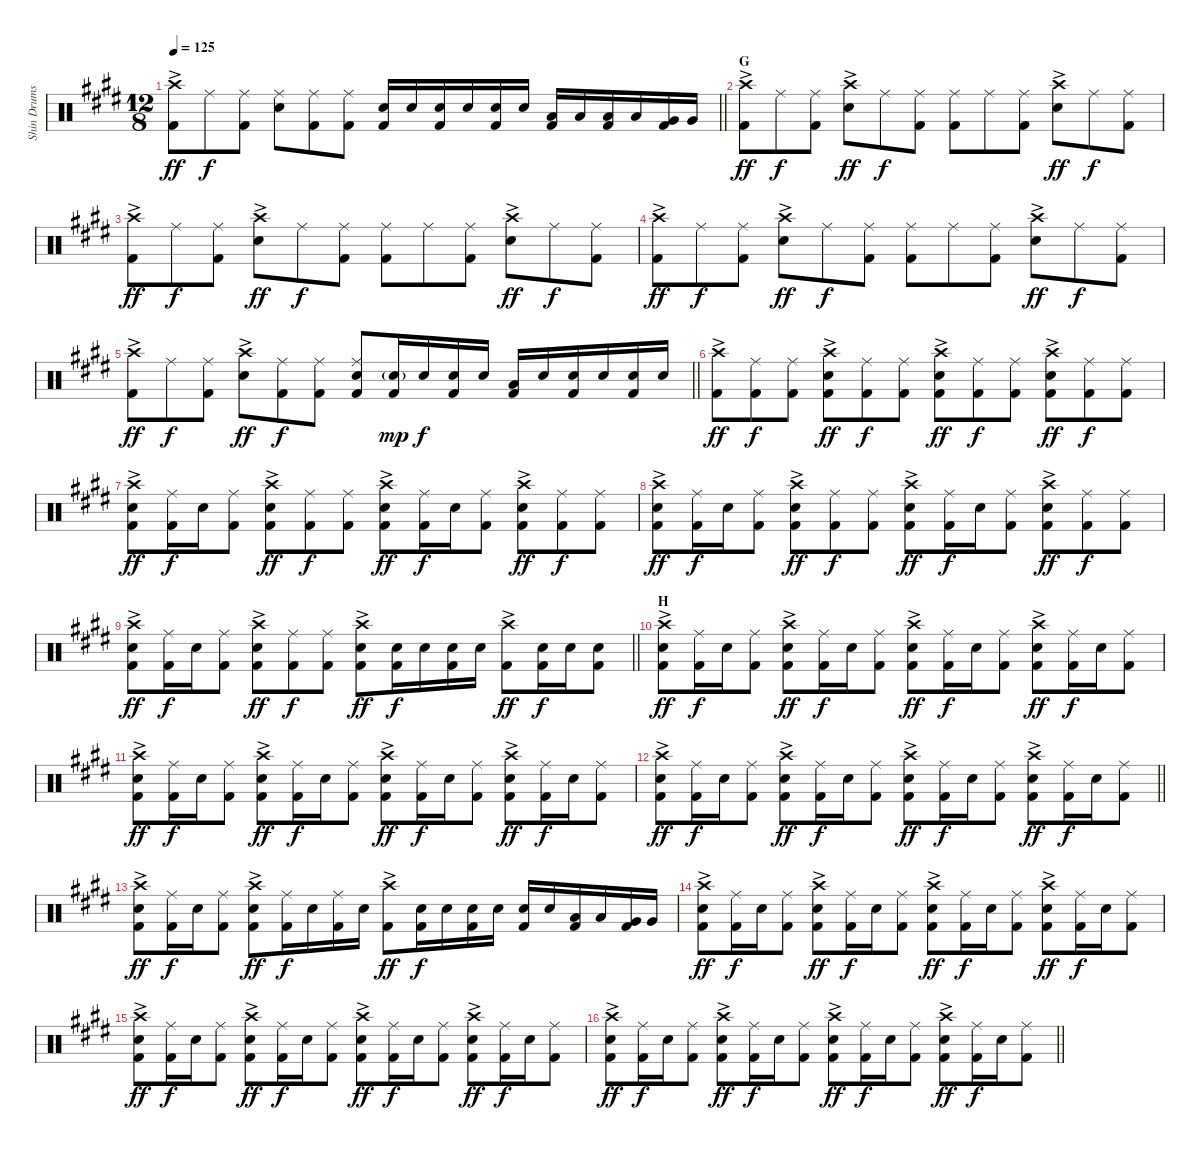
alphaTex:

\track ("Shin Drums" "Shin Drums") {instrument percussion}
\staff {score}
\articulation defaults
\ts (12 8)
\tempo 125
\clef neutral
\barLineRight lightlight
\ks e
("Crash high (hit)"{ac} "Kick (hit) 2").8{dy ff} "Ride (middle)".8{dy f} ("Ride (middle)" "Kick (hit) 2").8 ("Ride (middle)" "Snare (hit) 2").8 ("Ride (middle)" "Kick (hit) 2").8 ("Ride (middle)" "Kick (hit) 2").8 ("Snare (hit) 2" "Kick (hit) 2").16 "Snare (hit) 2".16 ("Snare (hit) 2" "Kick (hit) 2").16 "Snare (hit) 2".16 ("Snare (hit) 2" "Kick (hit) 2").16 "Snare (hit) 2".16 ("Low Tom (hit)" "Kick (hit) 2").16 "Low Tom (hit)".16 ("Low Tom (hit)" "Kick (hit) 2").16 "Low Tom (hit)".16 ("Very Low Tom (hit)" "Kick (hit) 2").16 "Very Low Tom (hit)".16 |
\section ("" "G")
("Crash high (hit)"{ac} "Kick (hit) 2").8{dy ff} "Ride (middle)".8{dy f} ("Ride (middle)" "Kick (hit) 2").8 ("Crash high (hit)"{ac} "Snare (hit) 2").8{dy ff} "Ride (middle)".8{dy f} ("Ride (middle)" "Kick (hit) 2").8 ("Ride (middle)" "Kick (hit) 2").8 "Ride (middle)".8 ("Ride (middle)" "Kick (hit) 2").8 ("Crash high (hit)"{ac} "Snare (hit) 2").8{dy ff} "Ride (middle)".8{dy f} ("Ride (middle)" "Kick (hit) 2").8 |
("Crash high (hit)"{ac} "Kick (hit) 2").8{dy ff} "Ride (middle)".8{dy f} ("Ride (middle)" "Kick (hit) 2").8 ("Crash high (hit)"{ac} "Snare (hit) 2").8{dy ff} "Ride (middle)".8{dy f} ("Ride (middle)" "Kick (hit) 2").8 ("Ride (middle)" "Kick (hit) 2").8 "Ride (middle)".8 ("Ride (middle)" "Kick (hit) 2").8 ("Crash high (hit)"{ac} "Snare (hit) 2").8{dy ff} "Ride (middle)".8{dy f} ("Ride (middle)" "Kick (hit) 2").8 |
("Crash high (hit)"{ac} "Kick (hit) 2").8{dy ff} "Ride (middle)".8{dy f} ("Ride (middle)" "Kick (hit) 2").8 ("Crash high (hit)"{ac} "Snare (hit) 2").8{dy ff} "Ride (middle)".8{dy f} ("Ride (middle)" "Kick (hit) 2").8 ("Ride (middle)" "Kick (hit) 2").8 "Ride (middle)".8 ("Ride (middle)" "Kick (hit) 2").8 ("Crash high (hit)"{ac} "Snare (hit) 2").8{dy ff} "Ride (middle)".8{dy f} ("Ride (middle)" "Kick (hit) 2").8 |
\barLineRight lightlight
("Crash high (hit)"{ac} "Kick (hit) 2").8{dy ff} "Ride (middle)".8{dy f} ("Ride (middle)" "Kick (hit) 2").8 ("Crash high (hit)"{ac} "Snare (hit) 2").8{dy ff} ("Ride (middle)" "Kick (hit) 2").8{dy f} ("Ride (middle)" "Kick (hit) 2").8 ("Ride (middle)" "Snare (hit) 2" "Kick (hit) 2").8 ("Snare (hit) 2"{g} "Kick (hit) 2").16{dy mp} "Snare (hit) 2".16{dy f} ("Snare (hit) 2" "Kick (hit) 2").16 "Snare (hit) 2".16 ("Low Tom (hit)" "Kick (hit) 2").16 "Snare (hit) 2".16 ("Snare (hit) 2" "Kick (hit) 2").16 "Snare (hit) 2".16 ("Snare (hit) 2" "Kick (hit) 2").16 "Snare (hit) 2".16 |
("Crash high (hit)"{ac} "Kick (hit) 2").8{dy ff} ("Ride (middle)" "Kick (hit) 2").8{dy f} ("Ride (middle)" "Kick (hit) 2").8 ("Crash high (hit)"{ac} "Snare (hit) 2" "Kick (hit) 2").8{dy ff} ("Ride (middle)" "Kick (hit) 2").8{dy f} ("Ride (middle)" "Kick (hit) 2").8 ("Crash high (hit)"{ac} "Snare (hit) 2" "Kick (hit) 2").8{dy ff} ("Ride (middle)" "Kick (hit) 2").8{dy f} ("Ride (middle)" "Kick (hit) 2").8 ("Crash high (hit)"{ac} "Snare (hit) 2" "Kick (hit) 2").8{dy ff} ("Ride (middle)" "Kick (hit) 2").8{dy f} ("Ride (middle)" "Kick (hit) 2").8 |
("Crash high (hit)"{ac} "Snare (hit) 2" "Kick (hit) 2").8{dy ff} ("Ride (middle)" "Kick (hit) 2").16{dy f} "Snare (hit) 2".16 ("Ride (middle)" "Kick (hit) 2").8 ("Crash high (hit)"{ac} "Snare (hit) 2" "Kick (hit) 2").8{dy ff} ("Ride (middle)" "Kick (hit) 2").8{dy f} ("Ride (middle)" "Kick (hit) 2").8 ("Crash high (hit)"{ac} "Snare (hit) 2" "Kick (hit) 2").8{dy ff} ("Ride (middle)" "Kick (hit) 2").16{dy f} "Snare (hit) 2".16 ("Ride (middle)" "Kick (hit) 2").8 ("Crash high (hit)"{ac} "Snare (hit) 2" "Kick (hit) 2").8{dy ff} ("Ride (middle)" "Kick (hit) 2").8{dy f} ("Ride (middle)" "Kick (hit) 2").8 |
("Crash high (hit)"{ac} "Snare (hit) 2" "Kick (hit) 2").8{dy ff} ("Ride (middle)" "Kick (hit) 2").16{dy f} "Snare (hit) 2".16 ("Ride (middle)" "Kick (hit) 2").8 ("Crash high (hit)"{ac} "Snare (hit) 2" "Kick (hit) 2").8{dy ff} ("Ride (middle)" "Kick (hit) 2").8{dy f} ("Ride (middle)" "Kick (hit) 2").8 ("Crash high (hit)"{ac} "Snare (hit) 2" "Kick (hit) 2").8{dy ff} ("Ride (middle)" "Kick (hit) 2").16{dy f} "Snare (hit) 2".16 ("Ride (middle)" "Kick (hit) 2").8 ("Crash high (hit)"{ac} "Snare (hit) 2" "Kick (hit) 2").8{dy ff} ("Ride (middle)" "Kick (hit) 2").8{dy f} ("Ride (middle)" "Kick (hit) 2").8 |
\barLineRight lightlight
("Crash high (hit)"{ac} "Snare (hit) 2" "Kick (hit) 2").8{dy ff} ("Ride (middle)" "Kick (hit) 2").16{dy f} "Snare (hit) 2".16 ("Ride (middle)" "Kick (hit) 2").8 ("Crash high (hit)"{ac} "Snare (hit) 2" "Kick (hit) 2").8{dy ff} ("Ride (middle)" "Kick (hit) 2").8{dy f} ("Ride (middle)" "Kick (hit) 2").8 ("Crash high (hit)"{ac} "Snare (hit) 2" "Kick (hit) 2").8{dy ff} ("Snare (hit) 2" "Kick (hit) 2").16{dy f} "Snare (hit) 2".16 ("Snare (hit) 2" "Kick (hit) 2").16 "Snare (hit) 2".16 ("Crash high (hit)"{ac} "Kick (hit) 2").8{dy ff} ("Snare (hit) 2" "Kick (hit) 2").16{dy f} "Snare (hit) 2".16 ("Snare (hit) 2" "Kick (hit) 2").8 |
\section ("" "H")
("Crash high (hit)"{ac} "Snare (hit) 2" "Kick (hit) 2").8{dy ff} ("Ride (middle)" "Kick (hit) 2").16{dy f} "Snare (hit) 2".16 ("Ride (middle)" "Kick (hit) 2").8 ("Crash high (hit)"{ac} "Snare (hit) 2" "Kick (hit) 2").8{dy ff} ("Ride (middle)" "Kick (hit) 2").16{dy f} "Snare (hit) 2".16 ("Ride (middle)" "Kick (hit) 2").8 ("Crash high (hit)"{ac} "Snare (hit) 2" "Kick (hit) 2").8{dy ff} ("Ride (middle)" "Kick (hit) 2").16{dy f} "Snare (hit) 2".16 ("Ride (middle)" "Kick (hit) 2").8 ("Crash high (hit)"{ac} "Snare (hit) 2" "Kick (hit) 2").8{dy ff} ("Ride (middle)" "Kick (hit) 2").16{dy f} "Snare (hit) 2".16 ("Ride (middle)" "Kick (hit) 2").8 |
("Crash high (hit)"{ac} "Snare (hit) 2" "Kick (hit) 2").8{dy ff} ("Ride (middle)" "Kick (hit) 2").16{dy f} "Snare (hit) 2".16 ("Ride (middle)" "Kick (hit) 2").8 ("Crash high (hit)"{ac} "Snare (hit) 2" "Kick (hit) 2").8{dy ff} ("Ride (middle)" "Kick (hit) 2").16{dy f} "Snare (hit) 2".16 ("Ride (middle)" "Kick (hit) 2").8 ("Crash high (hit)"{ac} "Snare (hit) 2" "Kick (hit) 2").8{dy ff} ("Ride (middle)" "Kick (hit) 2").16{dy f} "Snare (hit) 2".16 ("Ride (middle)" "Kick (hit) 2").8 ("Crash high (hit)"{ac} "Snare (hit) 2" "Kick (hit) 2").8{dy ff} ("Ride (middle)" "Kick (hit) 2").16{dy f} "Snare (hit) 2".16 ("Ride (middle)" "Kick (hit) 2").8 |
\barLineRight lightlight
("Crash high (hit)"{ac} "Snare (hit) 2" "Kick (hit) 2").8{dy ff} ("Ride (middle)" "Kick (hit) 2").16{dy f} "Snare (hit) 2".16 ("Ride (middle)" "Kick (hit) 2").8 ("Crash high (hit)"{ac} "Snare (hit) 2" "Kick (hit) 2").8{dy ff} ("Ride (middle)" "Kick (hit) 2").16{dy f} "Snare (hit) 2".16 ("Ride (middle)" "Kick (hit) 2").8 ("Crash high (hit)"{ac} "Snare (hit) 2" "Kick (hit) 2").8{dy ff} ("Ride (middle)" "Kick (hit) 2").16{dy f} "Snare (hit) 2".16 ("Ride (middle)" "Kick (hit) 2").8 ("Crash high (hit)"{ac} "Snare (hit) 2" "Kick (hit) 2").8{dy ff} ("Ride (middle)" "Kick (hit) 2").16{dy f} "Snare (hit) 2".16 ("Ride (middle)" "Kick (hit) 2").8 |
\section ("" "")
("Crash high (hit)"{ac} "Snare (hit) 2" "Kick (hit) 2").8{dy ff} ("Ride (middle)" "Kick (hit) 2").16{dy f} "Snare (hit) 2".16 ("Ride (middle)" "Kick (hit) 2").8 ("Crash high (hit)"{ac} "Snare (hit) 2" "Kick (hit) 2").8{dy ff} ("Ride (middle)" "Kick (hit) 2").16{dy f} "Snare (hit) 2".16 ("Ride (middle)" "Kick (hit) 2").16 "Snare (hit) 2".16 ("Crash high (hit)"{ac} "Kick (hit) 2").8{dy ff} ("Snare (hit) 2" "Kick (hit) 2").16{dy f} "Snare (hit) 2".16 ("Snare (hit) 2" "Kick (hit) 2").16 "Snare (hit) 2".16 ("Snare (hit) 2" "Kick (hit) 2").16 "Snare (hit) 2".16 ("Low Tom (hit)" "Kick (hit) 2").16 "Low Tom (hit)".16 ("Very Low Tom (hit)" "Kick (hit) 2").16 "Very Low Tom (hit)".16 |
("Crash high (hit)"{ac} "Snare (hit) 2" "Kick (hit) 2").8{dy ff} ("Ride (middle)" "Kick (hit) 2").16{dy f} "Snare (hit) 2".16 ("Ride (middle)" "Kick (hit) 2").8 ("Crash high (hit)"{ac} "Snare (hit) 2" "Kick (hit) 2").8{dy ff} ("Ride (middle)" "Kick (hit) 2").16{dy f} "Snare (hit) 2".16 ("Ride (middle)" "Kick (hit) 2").8 ("Crash high (hit)"{ac} "Snare (hit) 2" "Kick (hit) 2").8{dy ff} ("Ride (middle)" "Kick (hit) 2").16{dy f} "Snare (hit) 2".16 ("Ride (middle)" "Kick (hit) 2").8 ("Crash high (hit)"{ac} "Snare (hit) 2" "Kick (hit) 2").8{dy ff} ("Ride (middle)" "Kick (hit) 2").16{dy f} "Snare (hit) 2".16 ("Ride (middle)" "Kick (hit) 2").8 |
("Crash high (hit)"{ac} "Snare (hit) 2" "Kick (hit) 2").8{dy ff volume 0} ("Ride (middle)" "Kick (hit) 2").16{dy f} "Snare (hit) 2".16 ("Ride (middle)" "Kick (hit) 2").8 ("Crash high (hit)"{ac} "Snare (hit) 2" "Kick (hit) 2").8{dy ff} ("Ride (middle)" "Kick (hit) 2").16{dy f} "Snare (hit) 2".16 ("Ride (middle)" "Kick (hit) 2").8 ("Crash high (hit)"{ac} "Snare (hit) 2" "Kick (hit) 2").8{dy ff} ("Ride (middle)" "Kick (hit) 2").16{dy f} "Snare (hit) 2".16 ("Ride (middle)" "Kick (hit) 2").8 ("Crash high (hit)"{ac} "Snare (hit) 2" "Kick (hit) 2").8{dy ff} ("Ride (middle)" "Kick (hit) 2").16{dy f} "Snare (hit) 2".16 ("Ride (middle)" "Kick (hit) 2").8 |
\barLineRight lightlight
("Crash high (hit)"{ac} "Snare (hit) 2" "Kick (hit) 2").8{dy ff} ("Ride (middle)" "Kick (hit) 2").16{dy f} "Snare (hit) 2".16 ("Ride (middle)" "Kick (hit) 2").8 ("Crash high (hit)"{ac} "Snare (hit) 2" "Kick (hit) 2").8{dy ff} ("Ride (middle)" "Kick (hit) 2").16{dy f} "Snare (hit) 2".16 ("Ride (middle)" "Kick (hit) 2").8 ("Crash high (hit)"{ac} "Snare (hit) 2" "Kick (hit) 2").8{dy ff} ("Ride (middle)" "Kick (hit) 2").16{dy f} "Snare (hit) 2".16 ("Ride (middle)" "Kick (hit) 2").8 ("Crash high (hit)"{ac} "Snare (hit) 2" "Kick (hit) 2").8{dy ff} ("Ride (middle)" "Kick (hit) 2").16{dy f} "Snare (hit) 2".16 ("Ride (middle)" "Kick (hit) 2").8
